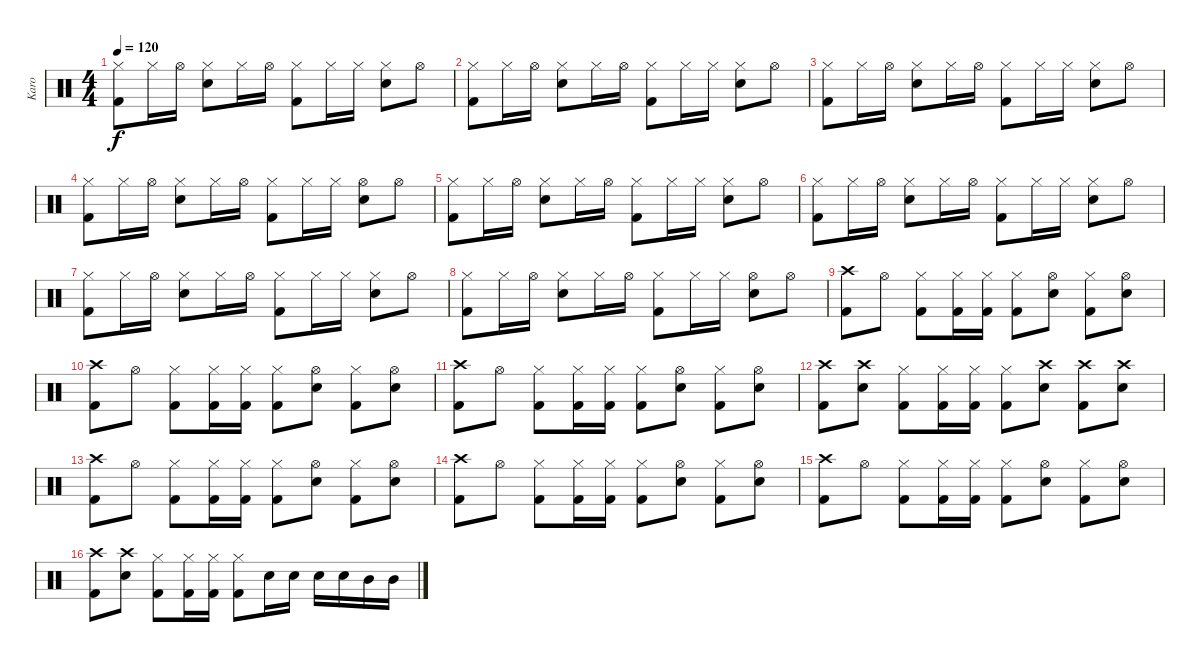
\track ("Karo" "Karo") {instrument percussion}
\staff {score}
\articulation defaults
\ts (4 4)
\tempo 120
\clef neutral
\ks c
("Hi-Hat (closed)" "Kick (hit) 2").8{dy f} "Hi-Hat (closed)".16 "Hi-Hat (open)".16 ("Hi-Hat (closed)" "Electric Snare (hit)").8 "Hi-Hat (closed)".16 "Hi-Hat (open)".16 ("Hi-Hat (closed)" "Kick (hit) 2").8 "Hi-Hat (closed)".16 "Hi-Hat (closed)".16 ("Hi-Hat (closed)" "Electric Snare (hit)").8 "Hi-Hat (open)".8 |
("Hi-Hat (closed)" "Kick (hit) 2").8 "Hi-Hat (closed)".16 "Hi-Hat (open)".16 ("Hi-Hat (closed)" "Electric Snare (hit)").8 "Hi-Hat (closed)".16 "Hi-Hat (open)".16 ("Hi-Hat (closed)" "Kick (hit) 2").8 "Hi-Hat (closed)".16 "Hi-Hat (closed)".16 ("Hi-Hat (closed)" "Electric Snare (hit)").8 "Hi-Hat (open)".8 |
("Hi-Hat (closed)" "Kick (hit) 2").8 "Hi-Hat (closed)".16 "Hi-Hat (open)".16 ("Hi-Hat (closed)" "Electric Snare (hit)").8 "Hi-Hat (closed)".16 "Hi-Hat (open)".16 ("Hi-Hat (closed)" "Kick (hit) 2").8 "Hi-Hat (closed)".16 "Hi-Hat (closed)".16 ("Hi-Hat (closed)" "Electric Snare (hit)").8 "Hi-Hat (open)".8 |
("Hi-Hat (closed)" "Kick (hit) 2").8 "Hi-Hat (closed)".16 "Hi-Hat (open)".16 ("Hi-Hat (closed)" "Electric Snare (hit)").8 "Hi-Hat (closed)".16 "Hi-Hat (open)".16 ("Hi-Hat (closed)" "Kick (hit) 2").8 "Hi-Hat (closed)".16 "Hi-Hat (closed)".16 ("Hi-Hat (open)" "Electric Snare (hit)").8 "Hi-Hat (open)".8 |
("Hi-Hat (closed)" "Kick (hit) 2").8 "Hi-Hat (closed)".16 "Hi-Hat (open)".16 ("Hi-Hat (closed)" "Electric Snare (hit)").8 "Hi-Hat (closed)".16 "Hi-Hat (open)".16 ("Hi-Hat (closed)" "Kick (hit) 2").8 "Hi-Hat (closed)".16 "Hi-Hat (closed)".16 ("Hi-Hat (closed)" "Electric Snare (hit)").8 "Hi-Hat (open)".8 |
("Hi-Hat (closed)" "Kick (hit) 2").8 "Hi-Hat (closed)".16 "Hi-Hat (open)".16 ("Hi-Hat (closed)" "Electric Snare (hit)").8 "Hi-Hat (closed)".16 "Hi-Hat (open)".16 ("Hi-Hat (closed)" "Kick (hit) 2").8 "Hi-Hat (closed)".16 "Hi-Hat (closed)".16 ("Hi-Hat (closed)" "Electric Snare (hit)").8 "Hi-Hat (open)".8 |
("Hi-Hat (closed)" "Kick (hit) 2").8 "Hi-Hat (closed)".16 "Hi-Hat (open)".16 ("Hi-Hat (closed)" "Electric Snare (hit)").8 "Hi-Hat (closed)".16 "Hi-Hat (open)".16 ("Hi-Hat (closed)" "Kick (hit) 2").8 "Hi-Hat (closed)".16 "Hi-Hat (closed)".16 ("Hi-Hat (closed)" "Electric Snare (hit)").8 "Hi-Hat (open)".8 |
("Hi-Hat (closed)" "Kick (hit) 2").8 "Hi-Hat (closed)".16 "Hi-Hat (open)".16 ("Hi-Hat (closed)" "Electric Snare (hit)").8 "Hi-Hat (closed)".16 "Hi-Hat (open)".16 ("Hi-Hat (closed)" "Kick (hit) 2").8 "Hi-Hat (closed)".16 "Hi-Hat (closed)".16 ("Hi-Hat (open)" "Electric Snare (hit)").8 "Hi-Hat (open)".8 |
("Crash high (hit)" "Kick (hit) 2").8 "Hi-Hat (open)".8 ("Hi-Hat (closed)" "Kick (hit) 2").8 ("Hi-Hat (closed)" "Kick (hit) 2").16 ("Hi-Hat (closed)" "Kick (hit) 2").16 ("Hi-Hat (closed)" "Kick (hit) 2").8 ("Hi-Hat (open)" "Electric Snare (hit)").8 ("Hi-Hat (closed)" "Kick (hit) 2").8 ("Hi-Hat (open)" "Electric Snare (hit)").8 |
("Crash high (hit)" "Kick (hit) 2").8 "Hi-Hat (open)".8 ("Hi-Hat (closed)" "Kick (hit) 2").8 ("Hi-Hat (closed)" "Kick (hit) 2").16 ("Hi-Hat (closed)" "Kick (hit) 2").16 ("Hi-Hat (closed)" "Kick (hit) 2").8 ("Hi-Hat (open)" "Electric Snare (hit)").8 ("Hi-Hat (closed)" "Kick (hit) 2").8 ("Hi-Hat (open)" "Electric Snare (hit)").8 |
("Crash high (hit)" "Kick (hit) 2").8 "Hi-Hat (open)".8 ("Hi-Hat (closed)" "Kick (hit) 2").8 ("Hi-Hat (closed)" "Kick (hit) 2").16 ("Hi-Hat (closed)" "Kick (hit) 2").16 ("Hi-Hat (closed)" "Kick (hit) 2").8 ("Hi-Hat (open)" "Electric Snare (hit)").8 ("Hi-Hat (closed)" "Kick (hit) 2").8 ("Hi-Hat (open)" "Electric Snare (hit)").8 |
("Crash high (hit)" "Kick (hit) 2").8 ("Crash high (hit)" "Electric Snare (hit)").8 ("Hi-Hat (closed)" "Kick (hit) 2").8 ("Hi-Hat (closed)" "Kick (hit) 2").16 ("Hi-Hat (closed)" "Kick (hit) 2").16 ("Hi-Hat (closed)" "Kick (hit) 2").8 ("Crash high (hit)" "Electric Snare (hit)").8 ("Crash high (hit)" "Kick (hit) 2").8 ("Crash high (hit)" "Electric Snare (hit)").8 |
("Crash high (hit)" "Kick (hit) 2").8 "Hi-Hat (open)".8 ("Hi-Hat (closed)" "Kick (hit) 2").8 ("Hi-Hat (closed)" "Kick (hit) 2").16 ("Hi-Hat (closed)" "Kick (hit) 2").16 ("Hi-Hat (closed)" "Kick (hit) 2").8 ("Hi-Hat (open)" "Electric Snare (hit)").8 ("Hi-Hat (closed)" "Kick (hit) 2").8 ("Hi-Hat (open)" "Electric Snare (hit)").8 |
("Crash high (hit)" "Kick (hit) 2").8 "Hi-Hat (open)".8 ("Hi-Hat (closed)" "Kick (hit) 2").8 ("Hi-Hat (closed)" "Kick (hit) 2").16 ("Hi-Hat (closed)" "Kick (hit) 2").16 ("Hi-Hat (closed)" "Kick (hit) 2").8 ("Hi-Hat (open)" "Electric Snare (hit)").8 ("Hi-Hat (closed)" "Kick (hit) 2").8 ("Hi-Hat (open)" "Electric Snare (hit)").8 |
("Crash high (hit)" "Kick (hit) 2").8 "Hi-Hat (open)".8 ("Hi-Hat (closed)" "Kick (hit) 2").8 ("Hi-Hat (closed)" "Kick (hit) 2").16 ("Hi-Hat (closed)" "Kick (hit) 2").16 ("Hi-Hat (closed)" "Kick (hit) 2").8 ("Hi-Hat (open)" "Electric Snare (hit)").8 ("Hi-Hat (closed)" "Kick (hit) 2").8 ("Hi-Hat (open)" "Electric Snare (hit)").8 |
("Crash high (hit)" "Kick (hit) 2").8 ("Crash high (hit)" "Electric Snare (hit)").8 ("Hi-Hat (closed)" "Kick (hit) 2").8 ("Hi-Hat (closed)" "Kick (hit) 2").16 ("Hi-Hat (closed)" "Kick (hit) 2").16 ("Hi-Hat (closed)" "Kick (hit) 2").8 "Electric Snare (hit)".16 "Electric Snare (hit)".16 "Electric Snare (hit)".16 "Electric Snare (hit)".16 "Mid Tom (hit)".16 "Mid Tom (hit)".16
